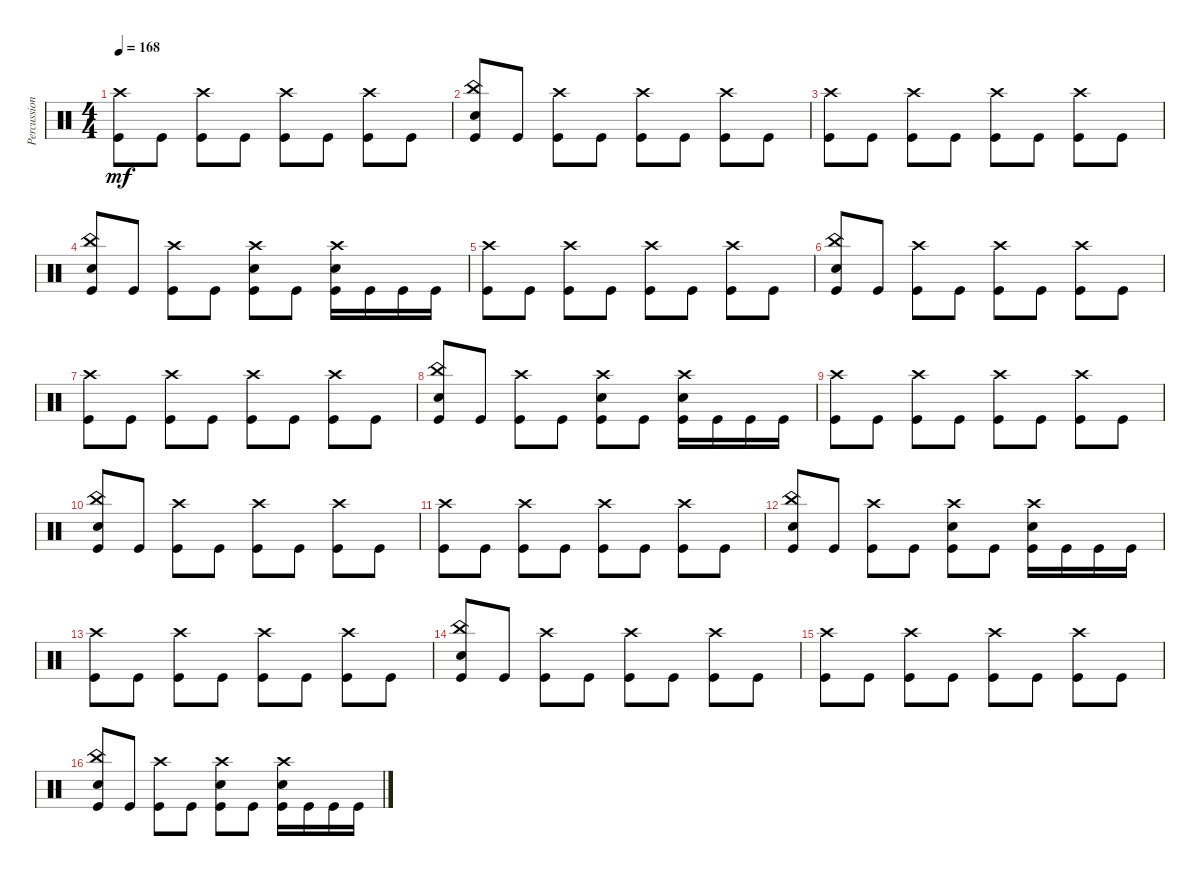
\track ("Percussion" "Percussion") {instrument percussion}
\staff {score}
\articulation defaults
\ts (4 4)
\tempo 168
\clef neutral
\ks c
("Crash high (hit)" "Kick (hit)").8{dy mf} "Kick (hit)".8 ("Crash high (hit)" "Kick (hit)").8 "Kick (hit)".8 ("Crash high (hit)" "Kick (hit)").8 "Kick (hit)".8 ("Crash high (hit)" "Kick (hit)").8 "Kick (hit)".8 |
("China (hit)" "Electric Snare (hit)" "Kick (hit)").8 "Kick (hit)".8 ("Crash high (hit)" "Kick (hit)").8 "Kick (hit)".8 ("Crash high (hit)" "Kick (hit)").8 "Kick (hit)".8 ("Crash high (hit)" "Kick (hit)").8 "Kick (hit)".8 |
("Crash high (hit)" "Kick (hit)").8 "Kick (hit)".8 ("Crash high (hit)" "Kick (hit)").8 "Kick (hit)".8 ("Crash high (hit)" "Kick (hit)").8 "Kick (hit)".8 ("Crash high (hit)" "Kick (hit)").8 "Kick (hit)".8 |
("China (hit)" "Electric Snare (hit)" "Kick (hit)").8 "Kick (hit)".8 ("Crash high (hit)" "Kick (hit)").8 "Kick (hit)".8 ("Crash high (hit)" "Electric Snare (hit)" "Kick (hit)").8 "Kick (hit)".8 ("Crash high (hit)" "Electric Snare (hit)" "Kick (hit)").16 "Kick (hit)".16 "Kick (hit)".16 "Kick (hit)".16 |
("Crash high (hit)" "Kick (hit)").8 "Kick (hit)".8 ("Crash high (hit)" "Kick (hit)").8 "Kick (hit)".8 ("Crash high (hit)" "Kick (hit)").8 "Kick (hit)".8 ("Crash high (hit)" "Kick (hit)").8 "Kick (hit)".8 |
("China (hit)" "Electric Snare (hit)" "Kick (hit)").8 "Kick (hit)".8 ("Crash high (hit)" "Kick (hit)").8 "Kick (hit)".8 ("Crash high (hit)" "Kick (hit)").8 "Kick (hit)".8 ("Crash high (hit)" "Kick (hit)").8 "Kick (hit)".8 |
("Crash high (hit)" "Kick (hit)").8 "Kick (hit)".8 ("Crash high (hit)" "Kick (hit)").8 "Kick (hit)".8 ("Crash high (hit)" "Kick (hit)").8 "Kick (hit)".8 ("Crash high (hit)" "Kick (hit)").8 "Kick (hit)".8 |
("China (hit)" "Electric Snare (hit)" "Kick (hit)").8 "Kick (hit)".8 ("Crash high (hit)" "Kick (hit)").8 "Kick (hit)".8 ("Crash high (hit)" "Electric Snare (hit)" "Kick (hit)").8 "Kick (hit)".8 ("Crash high (hit)" "Electric Snare (hit)" "Kick (hit)").16 "Kick (hit)".16 "Kick (hit)".16 "Kick (hit)".16 |
("Crash high (hit)" "Kick (hit)").8 "Kick (hit)".8 ("Crash high (hit)" "Kick (hit)").8 "Kick (hit)".8 ("Crash high (hit)" "Kick (hit)").8 "Kick (hit)".8 ("Crash high (hit)" "Kick (hit)").8 "Kick (hit)".8 |
("China (hit)" "Electric Snare (hit)" "Kick (hit)").8 "Kick (hit)".8 ("Crash high (hit)" "Kick (hit)").8 "Kick (hit)".8 ("Crash high (hit)" "Kick (hit)").8 "Kick (hit)".8 ("Crash high (hit)" "Kick (hit)").8 "Kick (hit)".8 |
("Crash high (hit)" "Kick (hit)").8 "Kick (hit)".8 ("Crash high (hit)" "Kick (hit)").8 "Kick (hit)".8 ("Crash high (hit)" "Kick (hit)").8 "Kick (hit)".8 ("Crash high (hit)" "Kick (hit)").8 "Kick (hit)".8 |
("China (hit)" "Electric Snare (hit)" "Kick (hit)").8 "Kick (hit)".8 ("Crash high (hit)" "Kick (hit)").8 "Kick (hit)".8 ("Crash high (hit)" "Electric Snare (hit)" "Kick (hit)").8 "Kick (hit)".8 ("Crash high (hit)" "Electric Snare (hit)" "Kick (hit)").16 "Kick (hit)".16 "Kick (hit)".16 "Kick (hit)".16 |
("Crash high (hit)" "Kick (hit)").8 "Kick (hit)".8 ("Crash high (hit)" "Kick (hit)").8 "Kick (hit)".8 ("Crash high (hit)" "Kick (hit)").8 "Kick (hit)".8 ("Crash high (hit)" "Kick (hit)").8 "Kick (hit)".8 |
("China (hit)" "Electric Snare (hit)" "Kick (hit)").8 "Kick (hit)".8 ("Crash high (hit)" "Kick (hit)").8 "Kick (hit)".8 ("Crash high (hit)" "Kick (hit)").8 "Kick (hit)".8 ("Crash high (hit)" "Kick (hit)").8 "Kick (hit)".8 |
("Crash high (hit)" "Kick (hit)").8 "Kick (hit)".8 ("Crash high (hit)" "Kick (hit)").8 "Kick (hit)".8 ("Crash high (hit)" "Kick (hit)").8 "Kick (hit)".8 ("Crash high (hit)" "Kick (hit)").8 "Kick (hit)".8 |
("China (hit)" "Electric Snare (hit)" "Kick (hit)").8 "Kick (hit)".8 ("Crash high (hit)" "Kick (hit)").8 "Kick (hit)".8 ("Crash high (hit)" "Electric Snare (hit)" "Kick (hit)").8 "Kick (hit)".8 ("Crash high (hit)" "Electric Snare (hit)" "Kick (hit)").16 "Kick (hit)".16 "Kick (hit)".16 "Kick (hit)".16
